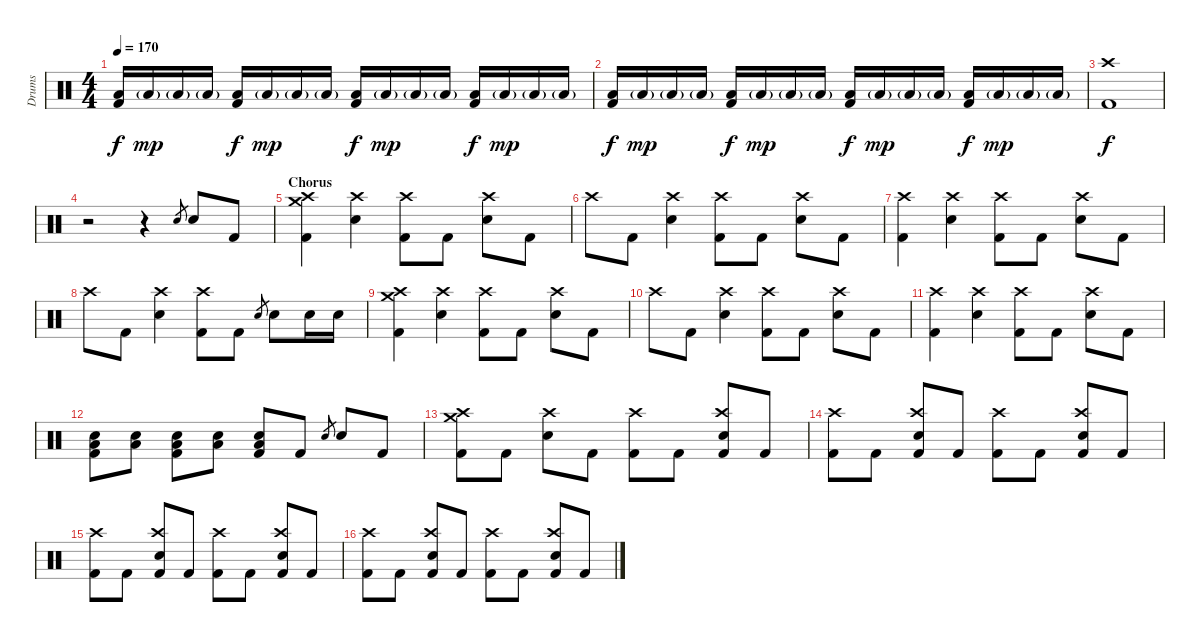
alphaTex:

\track ("Drums" "Drums") {instrument percussion}
\staff {score}
\articulation defaults
\ts (4 4)
\tempo 170
\clef neutral
\ks c
("Low Floor Tom (hit)" "Kick (hit) 2").16{dy f} "Low Floor Tom (hit)"{g}.16{dy mp} "Low Floor Tom (hit)"{g}.16 "Low Floor Tom (hit)"{g}.16 ("Low Floor Tom (hit)" "Kick (hit) 2").16{dy f} "Low Floor Tom (hit)"{g}.16{dy mp} "Low Floor Tom (hit)"{g}.16 "Low Floor Tom (hit)"{g}.16 ("Low Floor Tom (hit)" "Kick (hit) 2").16{dy f} "Low Floor Tom (hit)"{g}.16{dy mp} "Low Floor Tom (hit)"{g}.16 "Low Floor Tom (hit)"{g}.16 ("Low Floor Tom (hit)" "Kick (hit) 2").16{dy f} "Low Floor Tom (hit)"{g}.16{dy mp} "Low Floor Tom (hit)"{g}.16 "Low Floor Tom (hit)"{g}.16 |
("Low Floor Tom (hit)" "Kick (hit) 2").16{dy f} "Low Floor Tom (hit)"{g}.16{dy mp} "Low Floor Tom (hit)"{g}.16 "Low Floor Tom (hit)"{g}.16 ("Low Floor Tom (hit)" "Kick (hit) 2").16{dy f} "Low Floor Tom (hit)"{g}.16{dy mp} "Low Floor Tom (hit)"{g}.16 "Low Floor Tom (hit)"{g}.16 ("Low Floor Tom (hit)" "Kick (hit) 2").16{dy f} "Low Floor Tom (hit)"{g}.16{dy mp} "Low Floor Tom (hit)"{g}.16 "Low Floor Tom (hit)"{g}.16 ("Low Floor Tom (hit)" "Kick (hit) 2").16{dy f} "Low Floor Tom (hit)"{g}.16{dy mp} "Low Floor Tom (hit)"{g}.16 "Low Floor Tom (hit)"{g}.16 |
("Crash high (hit)" "Kick (hit) 2").1{dy f} |
r.2 r.4 "Snare (hit) 2".8{gr} "Snare (hit) 2".8 "Kick (hit) 2".8 |
\section ("" "Chorus")
("Crash medium (hit)" "Crash high (hit)" "Kick (hit) 2").4 ("Crash high (hit)" "Snare (hit) 2").4 ("Crash high (hit)" "Kick (hit) 2").8 "Kick (hit) 2".8 ("Crash high (hit)" "Snare (hit) 2").8 "Kick (hit) 2".8 |
"Crash high (hit)".8 "Kick (hit) 2".8 ("Crash high (hit)" "Snare (hit) 2").4 ("Crash high (hit)" "Kick (hit) 2").8 "Kick (hit) 2".8 ("Crash high (hit)" "Snare (hit) 2").8 "Kick (hit) 2".8 |
("Crash high (hit)" "Kick (hit) 2").4 ("Crash high (hit)" "Snare (hit) 2").4 ("Crash high (hit)" "Kick (hit) 2").8 "Kick (hit) 2".8 ("Crash high (hit)" "Snare (hit) 2").8 "Kick (hit) 2".8 |
"Crash high (hit)".8 "Kick (hit) 2".8 ("Crash high (hit)" "Snare (hit) 2").4 ("Crash high (hit)" "Kick (hit) 2").8 "Kick (hit) 2".8 "Snare (hit) 2".8{gr} "Snare (hit) 2".8 "Snare (hit) 2".16 "Snare (hit) 2".16 |
("Crash medium (hit)" "Crash high (hit)" "Kick (hit) 2").4 ("Crash high (hit)" "Snare (hit) 2").4 ("Crash high (hit)" "Kick (hit) 2").8 "Kick (hit) 2".8 ("Crash high (hit)" "Snare (hit) 2").8 "Kick (hit) 2".8 |
"Crash high (hit)".8 "Kick (hit) 2".8 ("Crash high (hit)" "Snare (hit) 2").4 ("Crash high (hit)" "Kick (hit) 2").8 "Kick (hit) 2".8 ("Crash high (hit)" "Snare (hit) 2").8 "Kick (hit) 2".8 |
("Crash high (hit)" "Kick (hit) 2").4 ("Crash high (hit)" "Snare (hit) 2").4 ("Crash high (hit)" "Kick (hit) 2").8 "Kick (hit) 2".8 ("Crash high (hit)" "Snare (hit) 2").8 "Kick (hit) 2".8 |
("Low Floor Tom (hit)" "Snare (hit) 2" "Kick (hit) 2").8 ("Low Floor Tom (hit)" "Snare (hit) 2").8 ("Low Floor Tom (hit)" "Snare (hit) 2" "Kick (hit) 2").8 ("Low Floor Tom (hit)" "Snare (hit) 2").8 ("Low Floor Tom (hit)" "Snare (hit) 2" "Kick (hit) 2").8 "Kick (hit) 2".8 "Snare (hit) 2".8{gr} "Snare (hit) 2".8 "Kick (hit) 2".8 |
("Crash medium (hit)" "Crash high (hit)" "Kick (hit) 2").8 "Kick (hit) 2".8 ("Crash high (hit)" "Snare (hit) 2").8 "Kick (hit) 2".8 ("Crash high (hit)" "Kick (hit) 2").8 "Kick (hit) 2".8 ("Crash high (hit)" "Snare (hit) 2" "Kick (hit) 2").8 "Kick (hit) 2".8 |
("Crash high (hit)" "Kick (hit) 2").8 "Kick (hit) 2".8 ("Crash high (hit)" "Snare (hit) 2" "Kick (hit) 2").8 "Kick (hit) 2".8 ("Crash high (hit)" "Kick (hit) 2").8 "Kick (hit) 2".8 ("Crash high (hit)" "Snare (hit) 2" "Kick (hit) 2").8 "Kick (hit) 2".8 |
("Crash high (hit)" "Kick (hit) 2").8 "Kick (hit) 2".8 ("Crash high (hit)" "Snare (hit) 2" "Kick (hit) 2").8 "Kick (hit) 2".8 ("Crash high (hit)" "Kick (hit) 2").8 "Kick (hit) 2".8 ("Crash high (hit)" "Snare (hit) 2" "Kick (hit) 2").8 "Kick (hit) 2".8 |
("Crash high (hit)" "Kick (hit) 2").8 "Kick (hit) 2".8 ("Crash high (hit)" "Snare (hit) 2" "Kick (hit) 2").8 "Kick (hit) 2".8 ("Crash high (hit)" "Kick (hit) 2").8 "Kick (hit) 2".8 ("Crash high (hit)" "Snare (hit) 2" "Kick (hit) 2").8 "Kick (hit) 2".8
